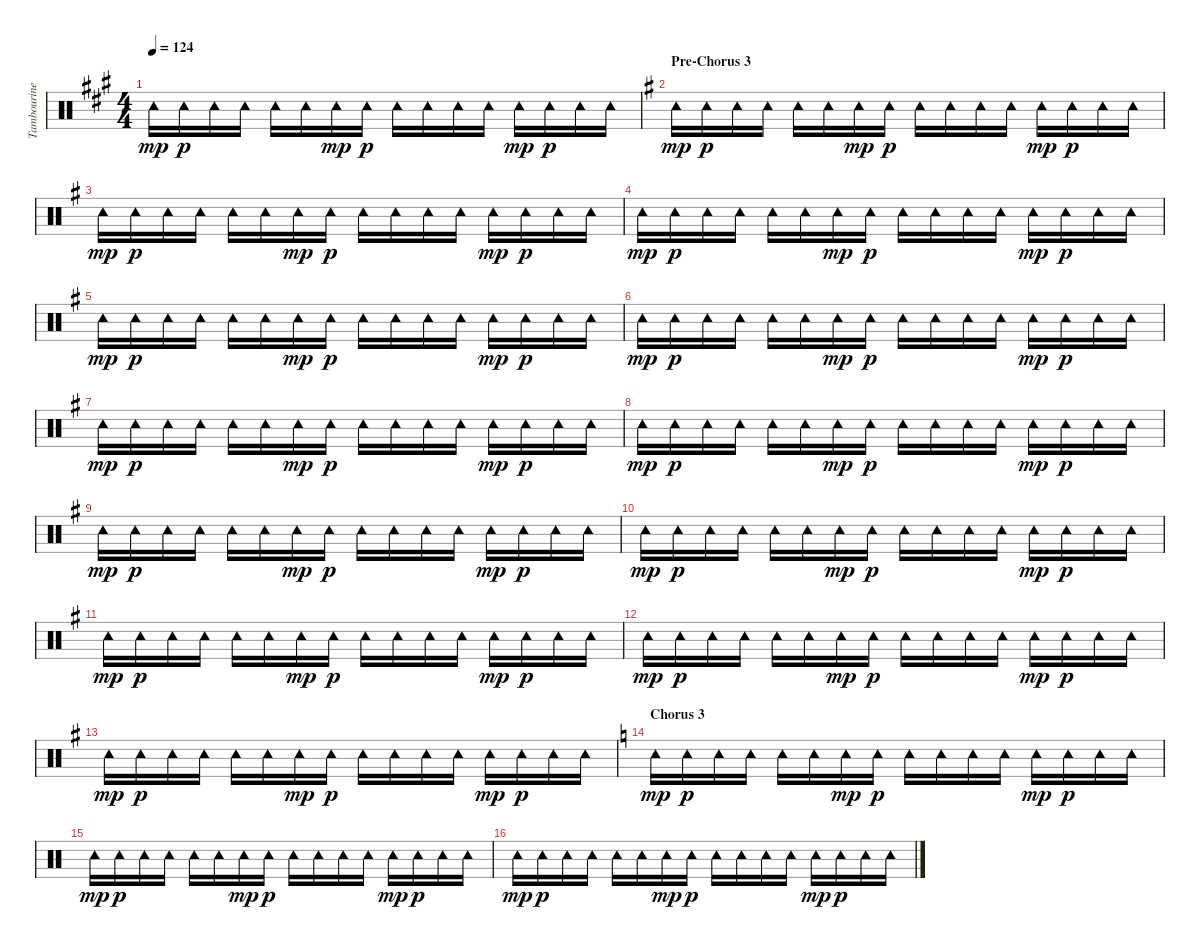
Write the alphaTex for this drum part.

\track ("Tambourine" "Tambourine") {instrument percussion}
\staff {score}
\articulation defaults
\ts (4 4)
\tempo 124
\clef neutral
\ks a "Tambourine (hit)".16{dy mp} "Tambourine (hit)".16{dy p} "Tambourine (hit)".16 "Tambourine (hit)".16 "Tambourine (hit)".16 "Tambourine (hit)".16 "Tambourine (hit)".16{dy mp} "Tambourine (hit)".16{dy p} "Tambourine (hit)".16 "Tambourine (hit)".16 "Tambourine (hit)".16 "Tambourine (hit)".16 "Tambourine (hit)".16{dy mp} "Tambourine (hit)".16{dy p} "Tambourine (hit)".16 "Tambourine (hit)".16
|
\section ("" "Pre-Chorus 3")
\ks g "Tambourine (hit)".16{dy mp} "Tambourine (hit)".16{dy p} "Tambourine (hit)".16 "Tambourine (hit)".16 "Tambourine (hit)".16 "Tambourine (hit)".16 "Tambourine (hit)".16{dy mp} "Tambourine (hit)".16{dy p} "Tambourine (hit)".16 "Tambourine (hit)".16 "Tambourine (hit)".16 "Tambourine (hit)".16 "Tambourine (hit)".16{dy mp} "Tambourine (hit)".16{dy p} "Tambourine (hit)".16 "Tambourine (hit)".16
|
"Tambourine (hit)".16{dy mp} "Tambourine (hit)".16{dy p} "Tambourine (hit)".16 "Tambourine (hit)".16 "Tambourine (hit)".16 "Tambourine (hit)".16 "Tambourine (hit)".16{dy mp} "Tambourine (hit)".16{dy p} "Tambourine (hit)".16 "Tambourine (hit)".16 "Tambourine (hit)".16 "Tambourine (hit)".16 "Tambourine (hit)".16{dy mp} "Tambourine (hit)".16{dy p} "Tambourine (hit)".16 "Tambourine (hit)".16 |
"Tambourine (hit)".16{dy mp} "Tambourine (hit)".16{dy p} "Tambourine (hit)".16 "Tambourine (hit)".16 "Tambourine (hit)".16 "Tambourine (hit)".16 "Tambourine (hit)".16{dy mp} "Tambourine (hit)".16{dy p} "Tambourine (hit)".16 "Tambourine (hit)".16 "Tambourine (hit)".16 "Tambourine (hit)".16 "Tambourine (hit)".16{dy mp} "Tambourine (hit)".16{dy p} "Tambourine (hit)".16 "Tambourine (hit)".16 |
"Tambourine (hit)".16{dy mp} "Tambourine (hit)".16{dy p} "Tambourine (hit)".16 "Tambourine (hit)".16 "Tambourine (hit)".16 "Tambourine (hit)".16 "Tambourine (hit)".16{dy mp} "Tambourine (hit)".16{dy p} "Tambourine (hit)".16 "Tambourine (hit)".16 "Tambourine (hit)".16 "Tambourine (hit)".16 "Tambourine (hit)".16{dy mp} "Tambourine (hit)".16{dy p} "Tambourine (hit)".16 "Tambourine (hit)".16 |
"Tambourine (hit)".16{dy mp} "Tambourine (hit)".16{dy p} "Tambourine (hit)".16 "Tambourine (hit)".16 "Tambourine (hit)".16 "Tambourine (hit)".16 "Tambourine (hit)".16{dy mp} "Tambourine (hit)".16{dy p} "Tambourine (hit)".16 "Tambourine (hit)".16 "Tambourine (hit)".16 "Tambourine (hit)".16 "Tambourine (hit)".16{dy mp} "Tambourine (hit)".16{dy p} "Tambourine (hit)".16 "Tambourine (hit)".16 |
"Tambourine (hit)".16{dy mp} "Tambourine (hit)".16{dy p} "Tambourine (hit)".16 "Tambourine (hit)".16 "Tambourine (hit)".16 "Tambourine (hit)".16 "Tambourine (hit)".16{dy mp} "Tambourine (hit)".16{dy p} "Tambourine (hit)".16 "Tambourine (hit)".16 "Tambourine (hit)".16 "Tambourine (hit)".16 "Tambourine (hit)".16{dy mp} "Tambourine (hit)".16{dy p} "Tambourine (hit)".16 "Tambourine (hit)".16 |
"Tambourine (hit)".16{dy mp} "Tambourine (hit)".16{dy p} "Tambourine (hit)".16 "Tambourine (hit)".16 "Tambourine (hit)".16 "Tambourine (hit)".16 "Tambourine (hit)".16{dy mp} "Tambourine (hit)".16{dy p} "Tambourine (hit)".16 "Tambourine (hit)".16 "Tambourine (hit)".16 "Tambourine (hit)".16 "Tambourine (hit)".16{dy mp} "Tambourine (hit)".16{dy p} "Tambourine (hit)".16 "Tambourine (hit)".16 |
"Tambourine (hit)".16{dy mp} "Tambourine (hit)".16{dy p} "Tambourine (hit)".16 "Tambourine (hit)".16 "Tambourine (hit)".16 "Tambourine (hit)".16 "Tambourine (hit)".16{dy mp} "Tambourine (hit)".16{dy p} "Tambourine (hit)".16 "Tambourine (hit)".16 "Tambourine (hit)".16 "Tambourine (hit)".16 "Tambourine (hit)".16{dy mp} "Tambourine (hit)".16{dy p} "Tambourine (hit)".16 "Tambourine (hit)".16 |
"Tambourine (hit)".16{dy mp} "Tambourine (hit)".16{dy p} "Tambourine (hit)".16 "Tambourine (hit)".16 "Tambourine (hit)".16 "Tambourine (hit)".16 "Tambourine (hit)".16{dy mp} "Tambourine (hit)".16{dy p} "Tambourine (hit)".16 "Tambourine (hit)".16 "Tambourine (hit)".16 "Tambourine (hit)".16 "Tambourine (hit)".16{dy mp} "Tambourine (hit)".16{dy p} "Tambourine (hit)".16 "Tambourine (hit)".16 |
"Tambourine (hit)".16{dy mp} "Tambourine (hit)".16{dy p} "Tambourine (hit)".16 "Tambourine (hit)".16 "Tambourine (hit)".16 "Tambourine (hit)".16 "Tambourine (hit)".16{dy mp} "Tambourine (hit)".16{dy p} "Tambourine (hit)".16 "Tambourine (hit)".16 "Tambourine (hit)".16 "Tambourine (hit)".16 "Tambourine (hit)".16{dy mp} "Tambourine (hit)".16{dy p} "Tambourine (hit)".16 "Tambourine (hit)".16 |
"Tambourine (hit)".16{dy mp} "Tambourine (hit)".16{dy p} "Tambourine (hit)".16 "Tambourine (hit)".16 "Tambourine (hit)".16 "Tambourine (hit)".16 "Tambourine (hit)".16{dy mp} "Tambourine (hit)".16{dy p} "Tambourine (hit)".16 "Tambourine (hit)".16 "Tambourine (hit)".16 "Tambourine (hit)".16 "Tambourine (hit)".16{dy mp} "Tambourine (hit)".16{dy p} "Tambourine (hit)".16 "Tambourine (hit)".16 |
"Tambourine (hit)".16{dy mp} "Tambourine (hit)".16{dy p} "Tambourine (hit)".16 "Tambourine (hit)".16 "Tambourine (hit)".16 "Tambourine (hit)".16 "Tambourine (hit)".16{dy mp} "Tambourine (hit)".16{dy p} "Tambourine (hit)".16 "Tambourine (hit)".16 "Tambourine (hit)".16 "Tambourine (hit)".16 "Tambourine (hit)".16{dy mp} "Tambourine (hit)".16{dy p} "Tambourine (hit)".16 "Tambourine (hit)".16 |
\section ("" "Chorus 3")
\ks c "Tambourine (hit)".16{dy mp} "Tambourine (hit)".16{dy p} "Tambourine (hit)".16 "Tambourine (hit)".16 "Tambourine (hit)".16 "Tambourine (hit)".16 "Tambourine (hit)".16{dy mp} "Tambourine (hit)".16{dy p} "Tambourine (hit)".16 "Tambourine (hit)".16 "Tambourine (hit)".16 "Tambourine (hit)".16 "Tambourine (hit)".16{dy mp} "Tambourine (hit)".16{dy p} "Tambourine (hit)".16 "Tambourine (hit)".16
|
"Tambourine (hit)".16{dy mp} "Tambourine (hit)".16{dy p} "Tambourine (hit)".16 "Tambourine (hit)".16 "Tambourine (hit)".16 "Tambourine (hit)".16 "Tambourine (hit)".16{dy mp} "Tambourine (hit)".16{dy p} "Tambourine (hit)".16 "Tambourine (hit)".16 "Tambourine (hit)".16 "Tambourine (hit)".16 "Tambourine (hit)".16{dy mp} "Tambourine (hit)".16{dy p} "Tambourine (hit)".16 "Tambourine (hit)".16 |
"Tambourine (hit)".16{dy mp} "Tambourine (hit)".16{dy p} "Tambourine (hit)".16 "Tambourine (hit)".16 "Tambourine (hit)".16 "Tambourine (hit)".16 "Tambourine (hit)".16{dy mp} "Tambourine (hit)".16{dy p} "Tambourine (hit)".16 "Tambourine (hit)".16 "Tambourine (hit)".16 "Tambourine (hit)".16 "Tambourine (hit)".16{dy mp} "Tambourine (hit)".16{dy p} "Tambourine (hit)".16 "Tambourine (hit)".16
